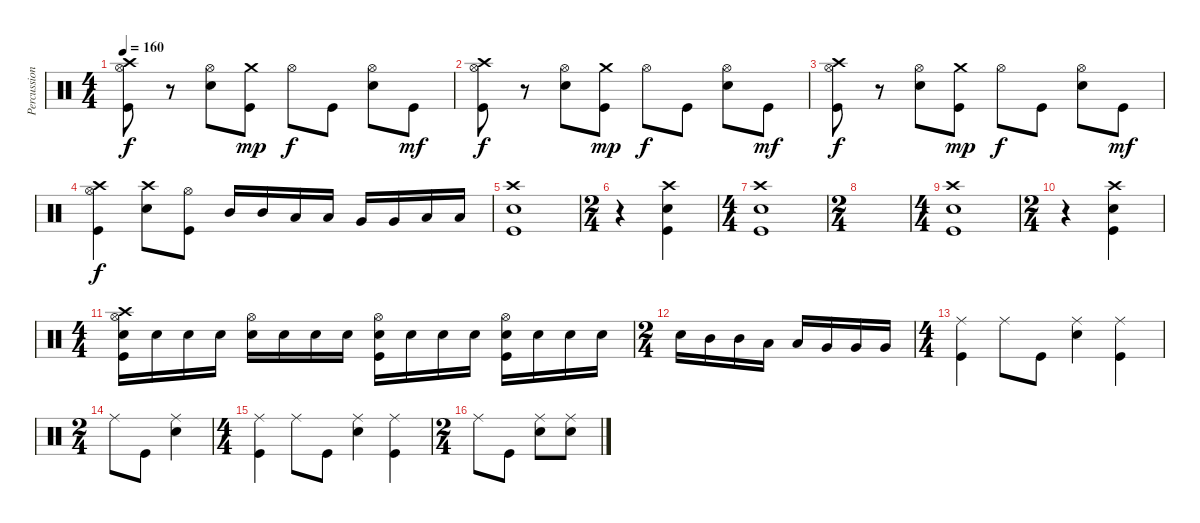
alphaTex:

\track ("Percussion" "Percussion") {instrument percussion}
\staff {score}
\articulation defaults
\ts (4 4)
\tempo 160
\clef neutral
\ks c
("Crash high (hit)" "Hi-Hat (open)" "Kick (hit)").8{dy f} r.8 ("Electric Snare (hit)" "Hi-Hat (open)").8 ("Crash medium (hit)" "Kick (hit)").8{dy mp} "Hi-Hat (open)".8{dy f} "Kick (hit)".8 ("Electric Snare (hit)" "Hi-Hat (open)").8 "Kick (hit)".8{dy mf} |
("Crash high (hit)" "Hi-Hat (open)" "Kick (hit)").8{dy f} r.8 ("Electric Snare (hit)" "Hi-Hat (open)").8 ("Crash medium (hit)" "Kick (hit)").8{dy mp} "Hi-Hat (open)".8{dy f} "Kick (hit)".8 ("Electric Snare (hit)" "Hi-Hat (open)").8 "Kick (hit)".8{dy mf} |
("Crash high (hit)" "Hi-Hat (open)" "Kick (hit)").8{dy f} r.8 ("Electric Snare (hit)" "Hi-Hat (open)").8 ("Crash medium (hit)" "Kick (hit)").8{dy mp} "Hi-Hat (open)".8{dy f} "Kick (hit)".8 ("Electric Snare (hit)" "Hi-Hat (open)").8 "Kick (hit)".8{dy mf} |
("Crash high (hit)" "Hi-Hat (open)" "Kick (hit)").4{dy f} ("Crash high (hit)" "Electric Snare (hit)").8 ("Hi-Hat (open)" "Kick (hit)").8 "Mid Tom (hit)".16 "Mid Tom (hit)".16 "Low Tom (hit)".16 "Low Tom (hit)".16 "Very Low Tom (hit)".16 "Very Low Tom (hit)".16 "Low Floor Tom (hit)".16 "Low Floor Tom (hit)".16 |
("Crash high (hit)" "Electric Snare (hit)" "Kick (hit)").1 |
\ts (2 4)
r.4 ("Crash high (hit)" "Electric Snare (hit)" "Kick (hit)").4 |
\ts (4 4)
("Crash high (hit)" "Electric Snare (hit)" "Kick (hit)").1 |
\ts (2 4)
|
\ts (4 4)
("Crash high (hit)" "Electric Snare (hit)" "Kick (hit)").1 |
\ts (2 4)
r.4 ("Crash high (hit)" "Electric Snare (hit)" "Kick (hit)").4 |
\ts (4 4)
("Crash high (hit)" "Hi-Hat (open)" "Electric Snare (hit)" "Kick (hit)").16 "Electric Snare (hit)".16 "Electric Snare (hit)".16 "Electric Snare (hit)".16 ("Hi-Hat (open)" "Electric Snare (hit)").16 "Electric Snare (hit)".16 "Electric Snare (hit)".16 "Electric Snare (hit)".16 ("Hi-Hat (open)" "Electric Snare (hit)" "Kick (hit)").16 "Electric Snare (hit)".16 "Electric Snare (hit)".16 "Electric Snare (hit)".16 ("Hi-Hat (open)" "Electric Snare (hit)" "Kick (hit)").16 "Electric Snare (hit)".16 "Electric Snare (hit)".16 "Electric Snare (hit)".16 |
\ts (2 4)
"Electric Snare (hit)".16 "Mid Tom (hit)".16 "Mid Tom (hit)".16 "Low Tom (hit)".16 "Low Tom (hit)".16 "Very Low Tom (hit)".16 "Very Low Tom (hit)".16 "Very Low Tom (hit)".16 |
\ts (4 4)
("Ride (middle)" "Kick (hit)").4 "Ride (middle)".8 "Kick (hit)".8 ("Ride (middle)" "Electric Snare (hit)").4 ("Ride (middle)" "Kick (hit)").4 |
\ts (2 4)
"Ride (middle)".8 "Kick (hit)".8 ("Ride (middle)" "Electric Snare (hit)").4 |
\ts (4 4)
("Ride (middle)" "Kick (hit)").4 "Ride (middle)".8 "Kick (hit)".8 ("Ride (middle)" "Electric Snare (hit)").4 ("Ride (middle)" "Kick (hit)").4 |
\ts (2 4)
"Ride (middle)".8 "Kick (hit)".8 ("Ride (middle)" "Electric Snare (hit)").8 ("Ride (middle)" "Electric Snare (hit)").8
